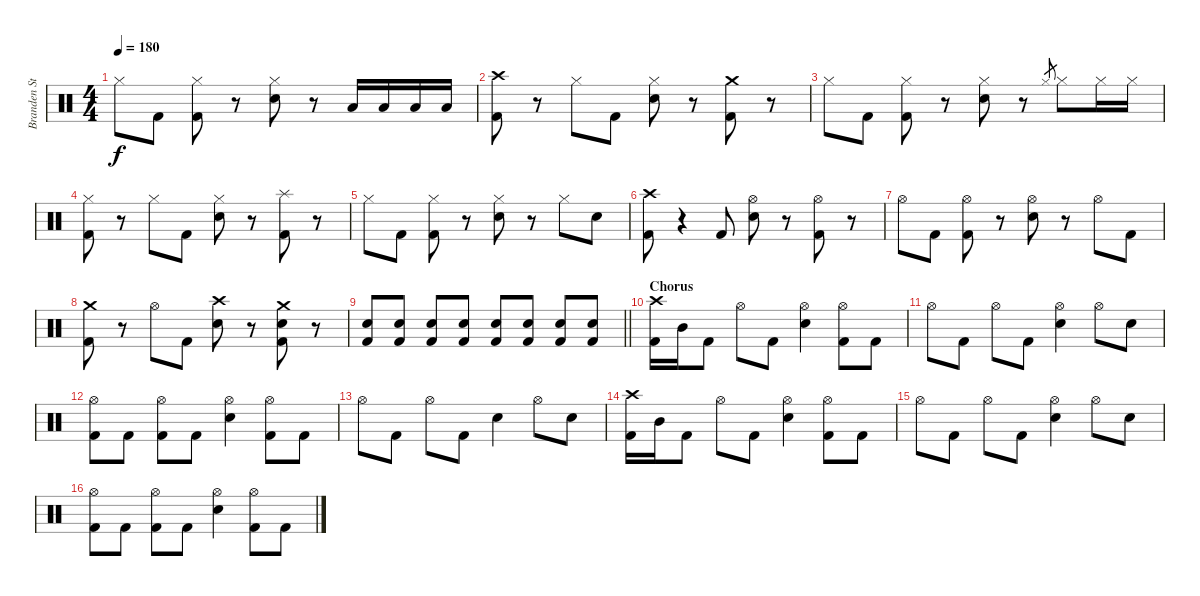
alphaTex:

\track ("Branden Steineckert" "Branden St") {instrument percussion}
\staff {score}
\articulation defaults
\ts (4 4)
\tempo 180
\clef neutral
\ks c "Hi-Hat (closed)".8{dy f} "Kick (hit) 2".8
("Hi-Hat (closed)" "Kick (hit) 2").8 r.8 ("Hi-Hat (closed)" "Electric Snare (hit)").8 r.8 "Low Floor Tom (hit)".16 "Low Floor Tom (hit)".16 "Low Floor Tom (hit)".16 "Low Floor Tom (hit)".16 |
("Crash high (hit)" "Kick (hit) 2").8 r.8 "Hi-Hat (closed)".8 "Kick (hit) 2".8 ("Hi-Hat (closed)" "Electric Snare (hit)").8 r.8 ("Crash medium (hit)" "Kick (hit) 2").8 r.8 |
"Hi-Hat (closed)".8 "Kick (hit) 2".8 ("Hi-Hat (closed)" "Kick (hit) 2").8 r.8 ("Hi-Hat (closed)" "Electric Snare (hit)").8 r.8 "Hi-Hat (closed)".8{gr} "Hi-Hat (closed)".8 "Hi-Hat (closed)".16 "Hi-Hat (closed)".16 |
("Hi-Hat (closed)" "Kick (hit) 2").8 r.8 "Hi-Hat (closed)".8 "Kick (hit) 2".8 ("Hi-Hat (closed)" "Electric Snare (hit)").8 r.8 ("Splash (hit)" "Kick (hit) 2").8 r.8 |
"Hi-Hat (closed)".8 "Kick (hit) 2".8 ("Hi-Hat (closed)" "Kick (hit) 2").8 r.8 ("Hi-Hat (closed)" "Electric Snare (hit)").8 r.8 "Hi-Hat (closed)".8 "Electric Snare (hit)".8 |
("Crash high (hit)" "Kick (hit) 2").8 r.4 "Kick (hit) 2".8 ("Hi-Hat (open)" "Electric Snare (hit)").8 r.8 ("Hi-Hat (open)" "Kick (hit) 2").8 r.8 |
"Hi-Hat (open)".8 "Kick (hit) 2".8 ("Hi-Hat (open)" "Kick (hit) 2").8 r.8 ("Hi-Hat (open)" "Electric Snare (hit)").8 r.8 "Hi-Hat (open)".8 "Kick (hit) 2".8 |
("Crash medium (hit)" "Kick (hit) 2").8 r.8 "Hi-Hat (open)".8 "Kick (hit) 2".8 ("Crash high (hit)" "Electric Snare (hit)").8 r.8 ("Crash medium (hit)" "Electric Snare (hit)" "Kick (hit) 2").8 r.8 |
\barLineRight lightlight
("Electric Snare (hit)" "Kick (hit) 2").8 ("Electric Snare (hit)" "Kick (hit) 2").8 ("Electric Snare (hit)" "Kick (hit) 2").8 ("Electric Snare (hit)" "Kick (hit) 2").8 ("Electric Snare (hit)" "Kick (hit) 2").8 ("Electric Snare (hit)" "Kick (hit) 2").8 ("Electric Snare (hit)" "Kick (hit) 2").8 ("Electric Snare (hit)" "Kick (hit) 2").8 |
\section ("" "Chorus")
("Crash high (hit)" "Kick (hit) 2").16 "Mid Tom (hit)".16 "Kick (hit) 2".8 "Hi-Hat (open)".8 "Kick (hit) 2".8 ("Hi-Hat (open)" "Electric Snare (hit)").4 ("Hi-Hat (open)" "Kick (hit) 2").8 "Kick (hit) 2".8 |
"Hi-Hat (open)".8 "Kick (hit) 2".8 "Hi-Hat (open)".8 "Kick (hit) 2".8 ("Hi-Hat (open)" "Electric Snare (hit)").4 "Hi-Hat (open)".8 "Electric Snare (hit)".8 |
("Hi-Hat (open)" "Kick (hit) 2").8 "Kick (hit) 2".8 ("Hi-Hat (open)" "Kick (hit) 2").8 "Kick (hit) 2".8 ("Hi-Hat (open)" "Electric Snare (hit)").4 ("Hi-Hat (open)" "Kick (hit) 2").8 "Kick (hit) 2".8 |
"Hi-Hat (open)".8 "Kick (hit) 2".8 "Hi-Hat (open)".8 "Kick (hit) 2".8 "Electric Snare (hit)".4 "Hi-Hat (open)".8 "Electric Snare (hit)".8 |
("Crash high (hit)" "Kick (hit) 2").16 "Mid Tom (hit)".16 "Kick (hit) 2".8 "Hi-Hat (open)".8 "Kick (hit) 2".8 ("Hi-Hat (open)" "Electric Snare (hit)").4 ("Hi-Hat (open)" "Kick (hit) 2").8 "Kick (hit) 2".8 |
"Hi-Hat (open)".8 "Kick (hit) 2".8 "Hi-Hat (open)".8 "Kick (hit) 2".8 ("Hi-Hat (open)" "Electric Snare (hit)").4 "Hi-Hat (open)".8 "Electric Snare (hit)".8 |
("Hi-Hat (open)" "Kick (hit) 2").8 "Kick (hit) 2".8 ("Hi-Hat (open)" "Kick (hit) 2").8 "Kick (hit) 2".8 ("Hi-Hat (open)" "Electric Snare (hit)").4 ("Hi-Hat (open)" "Kick (hit) 2").8 "Kick (hit) 2".8
